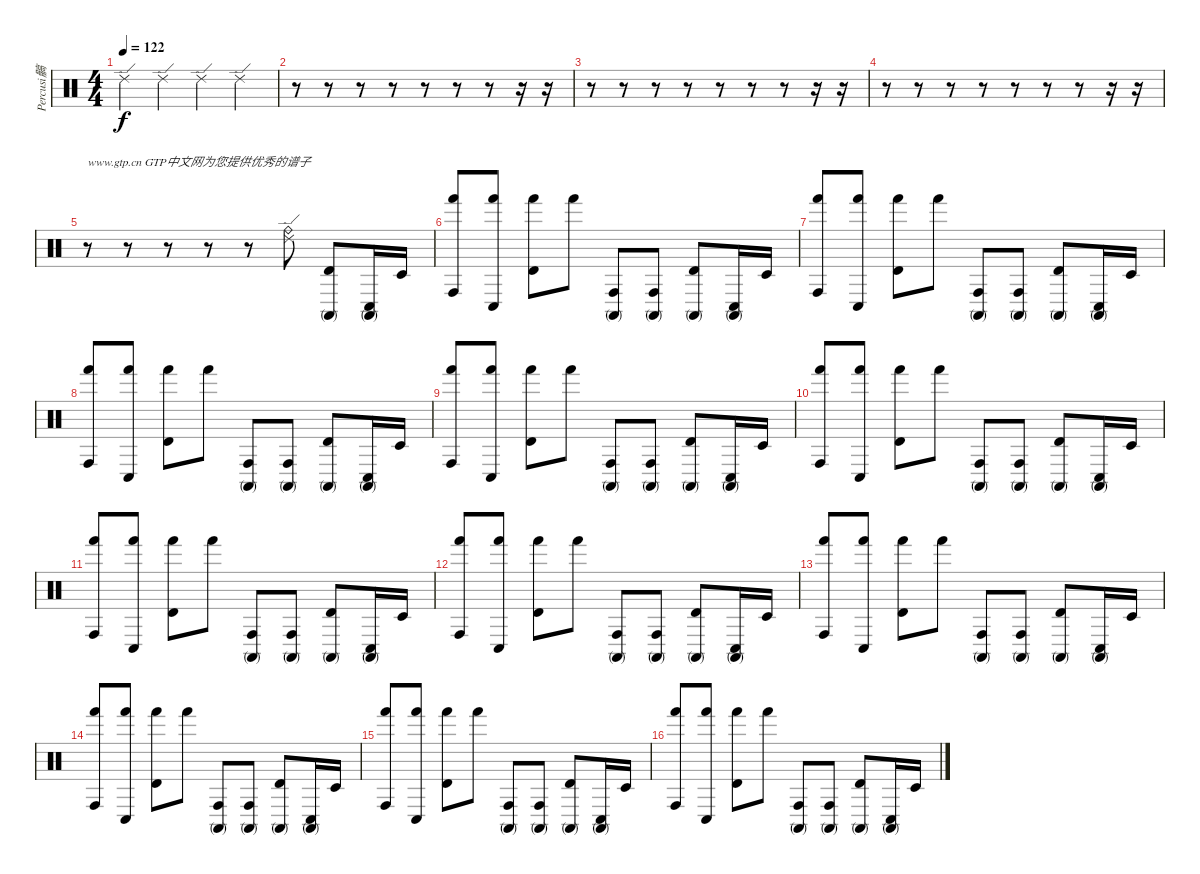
\track ("Percusi髇" "Percusi髇") {instrument percussion}
\staff {score}
\articulation defaults
\ts (4 4)
\tempo 122
\clef neutral
\ks c "Ride (edge) 2".4{dy f} "Ride (edge) 2".4 "Ride (edge) 2".4 "Ride (edge) 2".4
|
r.8 r.8 r.8 r.8 r.8 r.8 r.8 r.16 r.16 |
r.8 r.8 r.8 r.8 r.8 r.8 r.8 r.16 r.16 |
r.8 r.8 r.8 r.8 r.8 r.8 r.8 r.16 r.16 |
r.8{txt "www.gtp.cn GTP中文网为您提供优秀的谱子"} r.8 r.8 r.8 r.8 ("Ride (edge) 2" "Ride (bell)").8 ("Conga high (mute)" "Timbale high (hit)").8 ("Conga high (mute)" "Conga low (hit)").16 "Timbale low (hit)".16 |
("Hand (hit)" "Conga high (hit)").8 ("Hand (hit)" "Conga low (hit)").8 ("Hand (hit)" "Timbale high (hit)").8 "Hand (hit)".8 ("Conga high (mute)" "Conga high (hit)").8 ("Conga high (mute)" "Conga high (hit)").8 ("Conga high (mute)" "Timbale high (hit)").8 ("Conga high (mute)" "Conga low (hit)").16 "Timbale low (hit)".16 |
("Hand (hit)" "Conga high (hit)").8 ("Hand (hit)" "Conga low (hit)").8 ("Hand (hit)" "Timbale high (hit)").8 "Hand (hit)".8 ("Conga high (mute)" "Conga high (hit)").8 ("Conga high (mute)" "Conga high (hit)").8 ("Conga high (mute)" "Timbale high (hit)").8 ("Conga high (mute)" "Conga low (hit)").16 "Timbale low (hit)".16 |
("Hand (hit)" "Conga high (hit)").8 ("Hand (hit)" "Conga low (hit)").8 ("Hand (hit)" "Timbale high (hit)").8 "Hand (hit)".8 ("Conga high (mute)" "Conga high (hit)").8 ("Conga high (mute)" "Conga high (hit)").8 ("Conga high (mute)" "Timbale high (hit)").8 ("Conga high (mute)" "Conga low (hit)").16 "Timbale low (hit)".16 |
("Hand (hit)" "Conga high (hit)").8 ("Hand (hit)" "Conga low (hit)").8 ("Hand (hit)" "Timbale high (hit)").8 "Hand (hit)".8 ("Conga high (mute)" "Conga high (hit)").8 ("Conga high (mute)" "Conga high (hit)").8 ("Conga high (mute)" "Timbale high (hit)").8 ("Conga high (mute)" "Conga low (hit)").16 "Timbale low (hit)".16 |
("Hand (hit)" "Conga high (hit)").8 ("Hand (hit)" "Conga low (hit)").8 ("Hand (hit)" "Timbale high (hit)").8 "Hand (hit)".8 ("Conga high (mute)" "Conga high (hit)").8 ("Conga high (mute)" "Conga high (hit)").8 ("Conga high (mute)" "Timbale high (hit)").8 ("Conga high (mute)" "Conga low (hit)").16 "Timbale low (hit)".16 |
("Hand (hit)" "Conga high (hit)").8 ("Hand (hit)" "Conga low (hit)").8 ("Hand (hit)" "Timbale high (hit)").8 "Hand (hit)".8 ("Conga high (mute)" "Conga high (hit)").8 ("Conga high (mute)" "Conga high (hit)").8 ("Conga high (mute)" "Timbale high (hit)").8 ("Conga high (mute)" "Conga low (hit)").16 "Timbale low (hit)".16 |
("Hand (hit)" "Conga high (hit)").8 ("Hand (hit)" "Conga low (hit)").8 ("Hand (hit)" "Timbale high (hit)").8 "Hand (hit)".8 ("Conga high (mute)" "Conga high (hit)").8 ("Conga high (mute)" "Conga high (hit)").8 ("Conga high (mute)" "Timbale high (hit)").8 ("Conga high (mute)" "Conga low (hit)").16 "Timbale low (hit)".16 |
("Hand (hit)" "Conga high (hit)").8 ("Hand (hit)" "Conga low (hit)").8 ("Hand (hit)" "Timbale high (hit)").8 "Hand (hit)".8 ("Conga high (mute)" "Conga high (hit)").8 ("Conga high (mute)" "Conga high (hit)").8 ("Conga high (mute)" "Timbale high (hit)").8 ("Conga high (mute)" "Conga low (hit)").16 "Timbale low (hit)".16 |
("Hand (hit)" "Conga high (hit)").8 ("Hand (hit)" "Conga low (hit)").8 ("Hand (hit)" "Timbale high (hit)").8 "Hand (hit)".8 ("Conga high (mute)" "Conga high (hit)").8 ("Conga high (mute)" "Conga high (hit)").8 ("Conga high (mute)" "Timbale high (hit)").8 ("Conga high (mute)" "Conga low (hit)").16 "Timbale low (hit)".16 |
("Hand (hit)" "Conga high (hit)").8 ("Hand (hit)" "Conga low (hit)").8 ("Hand (hit)" "Timbale high (hit)").8 "Hand (hit)".8 ("Conga high (mute)" "Conga high (hit)").8 ("Conga high (mute)" "Conga high (hit)").8 ("Conga high (mute)" "Timbale high (hit)").8 ("Conga high (mute)" "Conga low (hit)").16 "Timbale low (hit)".16 |
("Hand (hit)" "Conga high (hit)").8 ("Hand (hit)" "Conga low (hit)").8 ("Hand (hit)" "Timbale high (hit)").8 "Hand (hit)".8 ("Conga high (mute)" "Conga high (hit)").8 ("Conga high (mute)" "Conga high (hit)").8 ("Conga high (mute)" "Timbale high (hit)").8 ("Conga high (mute)" "Conga low (hit)").16 "Timbale low (hit)".16
